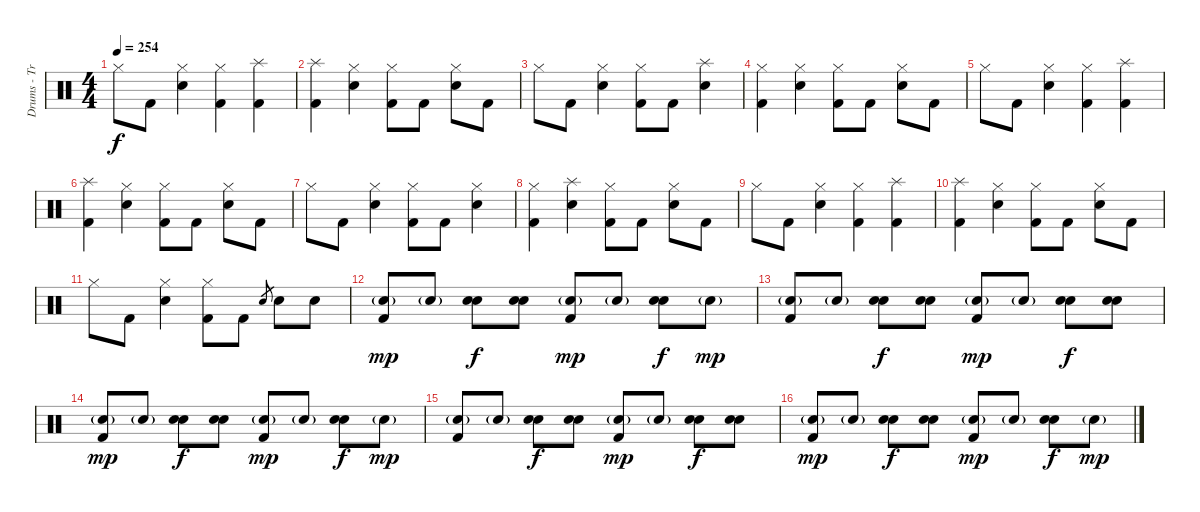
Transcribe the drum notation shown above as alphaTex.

\track ("Drums - Travis Barker" "Drums - Tr") {instrument percussion}
\staff {score}
\articulation defaults
\ts (4 4)
\tempo 254
\clef neutral
\ks c "Hi-Hat (closed)".8{dy f} "Kick (hit) 2".8
("Hi-Hat (closed)" "Electric Snare (hit)").4 ("Hi-Hat (closed)" "Kick (hit) 2").4 ("Splash (hit)" "Kick (hit) 2").4 |
("Splash (hit)" "Kick (hit) 2").4 ("Hi-Hat (closed)" "Electric Snare (hit)").4 ("Hi-Hat (closed)" "Kick (hit) 2").8 "Kick (hit) 2".8 ("Hi-Hat (closed)" "Electric Snare (hit)").8 "Kick (hit) 2".8 |
"Hi-Hat (closed)".8 "Kick (hit) 2".8 ("Hi-Hat (closed)" "Electric Snare (hit)").4 ("Hi-Hat (closed)" "Kick (hit) 2").8 "Kick (hit) 2".8 ("Splash (hit)" "Electric Snare (hit)").4 |
("Hi-Hat (closed)" "Kick (hit) 2").4 ("Hi-Hat (closed)" "Electric Snare (hit)").4 ("Hi-Hat (closed)" "Kick (hit) 2").8 "Kick (hit) 2".8 ("Hi-Hat (closed)" "Electric Snare (hit)").8 "Kick (hit) 2".8 |
"Hi-Hat (closed)".8 "Kick (hit) 2".8 ("Hi-Hat (closed)" "Electric Snare (hit)").4 ("Hi-Hat (closed)" "Kick (hit) 2").4 ("Splash (hit)" "Kick (hit) 2").4 |
("Splash (hit)" "Kick (hit) 2").4 ("Hi-Hat (closed)" "Electric Snare (hit)").4 ("Hi-Hat (closed)" "Kick (hit) 2").8 "Kick (hit) 2".8 ("Hi-Hat (closed)" "Electric Snare (hit)").8 "Kick (hit) 2".8 |
"Hi-Hat (closed)".8 "Kick (hit) 2".8 ("Hi-Hat (closed)" "Electric Snare (hit)").4 ("Hi-Hat (closed)" "Kick (hit) 2").8 "Kick (hit) 2".8 ("Hi-Hat (closed)" "Electric Snare (hit)").4 |
("Hi-Hat (closed)" "Kick (hit) 2").4 ("Splash (hit)" "Electric Snare (hit)").4 ("Hi-Hat (closed)" "Kick (hit) 2").8 "Kick (hit) 2".8 ("Hi-Hat (closed)" "Electric Snare (hit)").8 "Kick (hit) 2".8 |
"Hi-Hat (closed)".8 "Kick (hit) 2".8 ("Hi-Hat (closed)" "Electric Snare (hit)").4 ("Hi-Hat (closed)" "Kick (hit) 2").4 ("Splash (hit)" "Kick (hit) 2").4 |
("Splash (hit)" "Kick (hit) 2").4 ("Hi-Hat (closed)" "Electric Snare (hit)").4 ("Hi-Hat (closed)" "Kick (hit) 2").8 "Kick (hit) 2".8 ("Hi-Hat (closed)" "Electric Snare (hit)").8 "Kick (hit) 2".8 |
"Hi-Hat (closed)".8 "Kick (hit) 2".8 ("Hi-Hat (closed)" "Electric Snare (hit)").4 ("Hi-Hat (closed)" "Kick (hit) 2").8 "Kick (hit) 2".8 "Electric Snare (hit)".8{gr} "Electric Snare (hit)".8 "Electric Snare (hit)".8 |
("Electric Snare (hit)"{g} "Kick (hit) 2").8{dy mp} "Electric Snare (hit)"{g}.8 ("Electric Snare (hit)" "Electric Snare (hit)").8{dy f} ("Electric Snare (hit)" "Electric Snare (hit)").8 ("Electric Snare (hit)"{g} "Kick (hit) 2").8{dy mp} "Electric Snare (hit)"{g}.8 ("Electric Snare (hit)" "Electric Snare (hit)").8{dy f} "Electric Snare (hit)"{g}.8{dy mp} |
("Electric Snare (hit)"{g} "Kick (hit) 2").8 "Electric Snare (hit)"{g}.8 ("Electric Snare (hit)" "Electric Snare (hit)").8{dy f} ("Electric Snare (hit)" "Electric Snare (hit)").8 ("Electric Snare (hit)"{g} "Kick (hit) 2").8{dy mp} "Electric Snare (hit)"{g}.8 ("Electric Snare (hit)" "Electric Snare (hit)").8{dy f} ("Electric Snare (hit)" "Electric Snare (hit)").8 |
("Electric Snare (hit)"{g} "Kick (hit) 2").8{dy mp} "Electric Snare (hit)"{g}.8 ("Electric Snare (hit)" "Electric Snare (hit)").8{dy f} ("Electric Snare (hit)" "Electric Snare (hit)").8 ("Electric Snare (hit)"{g} "Kick (hit) 2").8{dy mp} "Electric Snare (hit)"{g}.8 ("Electric Snare (hit)" "Electric Snare (hit)").8{dy f} "Electric Snare (hit)"{g}.8{dy mp} |
("Electric Snare (hit)"{g} "Kick (hit) 2").8 "Electric Snare (hit)"{g}.8 ("Electric Snare (hit)" "Electric Snare (hit)").8{dy f} ("Electric Snare (hit)" "Electric Snare (hit)").8 ("Electric Snare (hit)"{g} "Kick (hit) 2").8{dy mp} "Electric Snare (hit)"{g}.8 ("Electric Snare (hit)" "Electric Snare (hit)").8{dy f} ("Electric Snare (hit)" "Electric Snare (hit)").8 |
("Electric Snare (hit)"{g} "Kick (hit) 2").8{dy mp} "Electric Snare (hit)"{g}.8 ("Electric Snare (hit)" "Electric Snare (hit)").8{dy f} ("Electric Snare (hit)" "Electric Snare (hit)").8 ("Electric Snare (hit)"{g} "Kick (hit) 2").8{dy mp} "Electric Snare (hit)"{g}.8 ("Electric Snare (hit)" "Electric Snare (hit)").8{dy f} "Electric Snare (hit)"{g}.8{dy mp}
